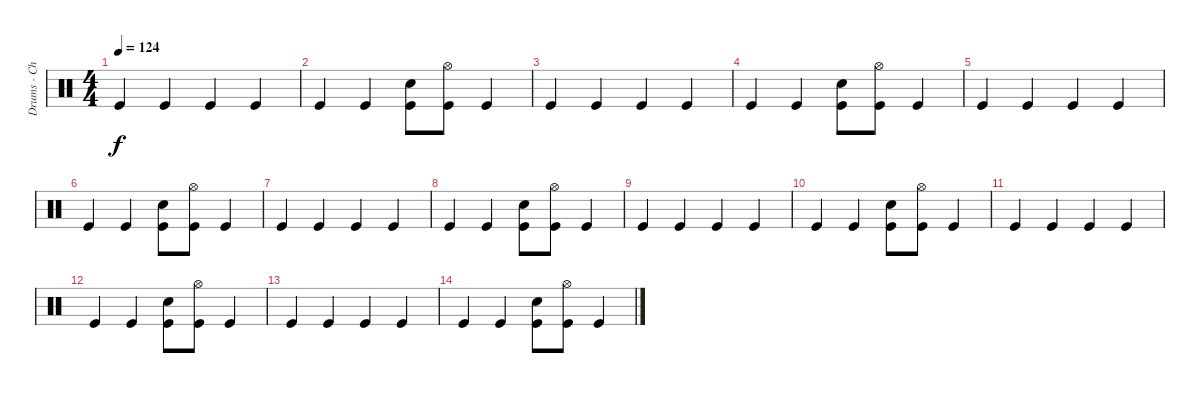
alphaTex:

\track ("Drums - Chris Frantz" "Drums - Ch") {instrument percussion}
\staff {score}
\articulation defaults
\ts (4 4)
\tempo 124
\clef neutral
\ks c "Kick (hit)".4{dy f} "Kick (hit)".4 "Kick (hit)".4 "Kick (hit)".4
|
"Kick (hit)".4 "Kick (hit)".4 ("Kick (hit)" "Snare (hit) 2").8 ("Kick (hit)" "Hi-Hat (open)").8 "Kick (hit)".4 |
"Kick (hit)".4 "Kick (hit)".4 "Kick (hit)".4 "Kick (hit)".4 |
"Kick (hit)".4 "Kick (hit)".4 ("Kick (hit)" "Snare (hit) 2").8 ("Kick (hit)" "Hi-Hat (open)").8 "Kick (hit)".4 |
"Kick (hit)".4 "Kick (hit)".4 "Kick (hit)".4 "Kick (hit)".4 |
"Kick (hit)".4 "Kick (hit)".4 ("Kick (hit)" "Snare (hit) 2").8 ("Kick (hit)" "Hi-Hat (open)").8 "Kick (hit)".4 |
"Kick (hit)".4 "Kick (hit)".4 "Kick (hit)".4 "Kick (hit)".4 |
"Kick (hit)".4 "Kick (hit)".4 ("Kick (hit)" "Snare (hit) 2").8 ("Kick (hit)" "Hi-Hat (open)").8 "Kick (hit)".4 |
"Kick (hit)".4 "Kick (hit)".4 "Kick (hit)".4 "Kick (hit)".4 |
"Kick (hit)".4 "Kick (hit)".4 ("Kick (hit)" "Snare (hit) 2").8 ("Kick (hit)" "Hi-Hat (open)").8 "Kick (hit)".4 |
"Kick (hit)".4 "Kick (hit)".4 "Kick (hit)".4 "Kick (hit)".4 |
"Kick (hit)".4 "Kick (hit)".4 ("Kick (hit)" "Snare (hit) 2").8 ("Kick (hit)" "Hi-Hat (open)").8 "Kick (hit)".4 |
"Kick (hit)".4 "Kick (hit)".4 "Kick (hit)".4 "Kick (hit)".4 |
"Kick (hit)".4 "Kick (hit)".4 ("Kick (hit)" "Snare (hit) 2").8 ("Kick (hit)" "Hi-Hat (open)").8 "Kick (hit)".4
